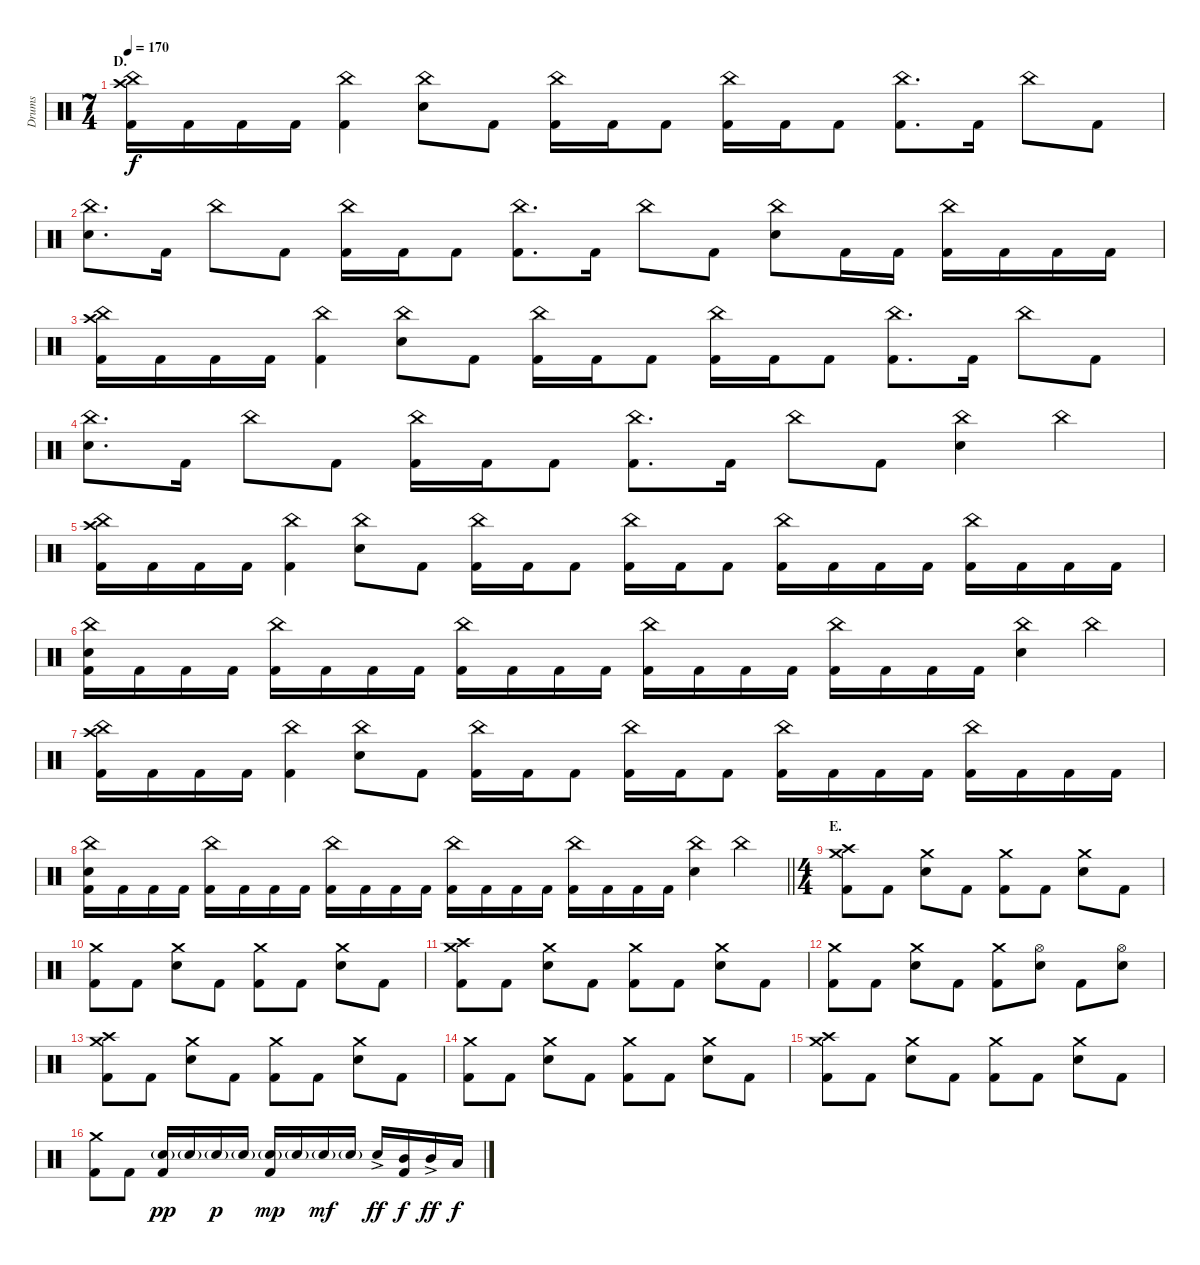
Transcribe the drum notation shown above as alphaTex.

\track ("Drums" "Drums") {instrument percussion}
\staff {score}
\articulation defaults
\ts (7 4)
\section ("" "D.")
\tempo 170
\clef neutral
\ks c
("China (hit)" "Crash high (hit)" "Kick (hit) 2").16{dy f} "Kick (hit) 2".16 "Kick (hit) 2".16 "Kick (hit) 2".16 ("China (hit)" "Kick (hit) 2").4 ("China (hit)" "Electric Snare (hit)").8 "Kick (hit) 2".8 ("China (hit)" "Kick (hit) 2").16 "Kick (hit) 2".16 "Kick (hit) 2".8 ("China (hit)" "Kick (hit) 2").16 "Kick (hit) 2".16 "Kick (hit) 2".8 ("China (hit)" "Kick (hit) 2").8{d} "Kick (hit) 2".16 "China (hit)".8 "Kick (hit) 2".8 |
("China (hit)" "Electric Snare (hit)").8{d} "Kick (hit) 2".16 "China (hit)".8 "Kick (hit) 2".8 ("China (hit)" "Kick (hit) 2").16 "Kick (hit) 2".16 "Kick (hit) 2".8 ("China (hit)" "Kick (hit) 2").8{d} "Kick (hit) 2".16 "China (hit)".8 "Kick (hit) 2".8 ("China (hit)" "Electric Snare (hit)").8 "Kick (hit) 2".16 "Kick (hit) 2".16 ("China (hit)" "Kick (hit) 2").16 "Kick (hit) 2".16 "Kick (hit) 2".16 "Kick (hit) 2".16 |
("China (hit)" "Crash high (hit)" "Kick (hit) 2").16 "Kick (hit) 2".16 "Kick (hit) 2".16 "Kick (hit) 2".16 ("China (hit)" "Kick (hit) 2").4 ("China (hit)" "Electric Snare (hit)").8 "Kick (hit) 2".8 ("China (hit)" "Kick (hit) 2").16 "Kick (hit) 2".16 "Kick (hit) 2".8 ("China (hit)" "Kick (hit) 2").16 "Kick (hit) 2".16 "Kick (hit) 2".8 ("China (hit)" "Kick (hit) 2").8{d} "Kick (hit) 2".16 "China (hit)".8 "Kick (hit) 2".8 |
("China (hit)" "Electric Snare (hit)").8{d} "Kick (hit) 2".16 "China (hit)".8 "Kick (hit) 2".8 ("China (hit)" "Kick (hit) 2").16 "Kick (hit) 2".16 "Kick (hit) 2".8 ("China (hit)" "Kick (hit) 2").8{d} "Kick (hit) 2".16 "China (hit)".8 "Kick (hit) 2".8 ("China (hit)" "Electric Snare (hit)").4 "China (hit)".4 |
("China (hit)" "Crash high (hit)" "Kick (hit) 2").16 "Kick (hit) 2".16 "Kick (hit) 2".16 "Kick (hit) 2".16 ("China (hit)" "Kick (hit) 2").4 ("China (hit)" "Electric Snare (hit)").8 "Kick (hit) 2".8 ("China (hit)" "Kick (hit) 2").16 "Kick (hit) 2".16 "Kick (hit) 2".8 ("China (hit)" "Kick (hit) 2").16 "Kick (hit) 2".16 "Kick (hit) 2".8 ("China (hit)" "Kick (hit) 2").16 "Kick (hit) 2".16 "Kick (hit) 2".16 "Kick (hit) 2".16 ("China (hit)" "Kick (hit) 2").16 "Kick (hit) 2".16 "Kick (hit) 2".16 "Kick (hit) 2".16 |
("China (hit)" "Electric Snare (hit)" "Kick (hit) 2").16 "Kick (hit) 2".16 "Kick (hit) 2".16 "Kick (hit) 2".16 ("China (hit)" "Kick (hit) 2").16 "Kick (hit) 2".16 "Kick (hit) 2".16 "Kick (hit) 2".16 ("China (hit)" "Kick (hit) 2").16 "Kick (hit) 2".16 "Kick (hit) 2".16 "Kick (hit) 2".16 ("China (hit)" "Kick (hit) 2").16 "Kick (hit) 2".16 "Kick (hit) 2".16 "Kick (hit) 2".16 ("China (hit)" "Kick (hit) 2").16 "Kick (hit) 2".16 "Kick (hit) 2".16 "Kick (hit) 2".16 ("China (hit)" "Electric Snare (hit)").4 "China (hit)".4 |
("China (hit)" "Crash high (hit)" "Kick (hit) 2").16 "Kick (hit) 2".16 "Kick (hit) 2".16 "Kick (hit) 2".16 ("China (hit)" "Kick (hit) 2").4 ("China (hit)" "Electric Snare (hit)").8 "Kick (hit) 2".8 ("China (hit)" "Kick (hit) 2").16 "Kick (hit) 2".16 "Kick (hit) 2".8 ("China (hit)" "Kick (hit) 2").16 "Kick (hit) 2".16 "Kick (hit) 2".8 ("China (hit)" "Kick (hit) 2").16 "Kick (hit) 2".16 "Kick (hit) 2".16 "Kick (hit) 2".16 ("China (hit)" "Kick (hit) 2").16 "Kick (hit) 2".16 "Kick (hit) 2".16 "Kick (hit) 2".16 |
\barLineRight lightlight
("China (hit)" "Electric Snare (hit)" "Kick (hit) 2").16 "Kick (hit) 2".16 "Kick (hit) 2".16 "Kick (hit) 2".16 ("China (hit)" "Kick (hit) 2").16 "Kick (hit) 2".16 "Kick (hit) 2".16 "Kick (hit) 2".16 ("China (hit)" "Kick (hit) 2").16 "Kick (hit) 2".16 "Kick (hit) 2".16 "Kick (hit) 2".16 ("China (hit)" "Kick (hit) 2").16 "Kick (hit) 2".16 "Kick (hit) 2".16 "Kick (hit) 2".16 ("China (hit)" "Kick (hit) 2").16 "Kick (hit) 2".16 "Kick (hit) 2".16 "Kick (hit) 2".16 ("China (hit)" "Electric Snare (hit)").4 "China (hit)".4 |
\ts (4 4)
\section ("" "E.")
("Crash medium (hit)" "Crash high (hit)" "Kick (hit) 2").8 "Kick (hit) 2".8 ("Crash medium (hit)" "Electric Snare (hit)").8 "Kick (hit) 2".8 ("Crash medium (hit)" "Kick (hit) 2").8 "Kick (hit) 2".8 ("Crash medium (hit)" "Electric Snare (hit)").8 "Kick (hit) 2".8 |
("Crash medium (hit)" "Kick (hit) 2").8 "Kick (hit) 2".8 ("Crash medium (hit)" "Electric Snare (hit)").8 "Kick (hit) 2".8 ("Crash medium (hit)" "Kick (hit) 2").8 "Kick (hit) 2".8 ("Crash medium (hit)" "Electric Snare (hit)").8 "Kick (hit) 2".8 |
("Crash medium (hit)" "Crash high (hit)" "Kick (hit) 2").8 "Kick (hit) 2".8 ("Crash medium (hit)" "Electric Snare (hit)").8 "Kick (hit) 2".8 ("Crash medium (hit)" "Kick (hit) 2").8 "Kick (hit) 2".8 ("Crash medium (hit)" "Electric Snare (hit)").8 "Kick (hit) 2".8 |
("Crash medium (hit)" "Kick (hit) 2").8 "Kick (hit) 2".8 ("Crash medium (hit)" "Electric Snare (hit)").8 "Kick (hit) 2".8 ("Crash medium (hit)" "Kick (hit) 2").8 ("Hi-Hat (open)" "Electric Snare (hit)").8 "Kick (hit) 2".8 ("Hi-Hat (open)" "Electric Snare (hit)").8 |
("Crash medium (hit)" "Crash high (hit)" "Kick (hit) 2").8 "Kick (hit) 2".8 ("Crash medium (hit)" "Electric Snare (hit)").8 "Kick (hit) 2".8 ("Crash medium (hit)" "Kick (hit) 2").8 "Kick (hit) 2".8 ("Crash medium (hit)" "Electric Snare (hit)").8 "Kick (hit) 2".8 |
("Crash medium (hit)" "Kick (hit) 2").8 "Kick (hit) 2".8 ("Crash medium (hit)" "Electric Snare (hit)").8 "Kick (hit) 2".8 ("Crash medium (hit)" "Kick (hit) 2").8 "Kick (hit) 2".8 ("Crash medium (hit)" "Electric Snare (hit)").8 "Kick (hit) 2".8 |
("Crash medium (hit)" "Crash high (hit)" "Kick (hit) 2").8 "Kick (hit) 2".8 ("Crash medium (hit)" "Electric Snare (hit)").8 "Kick (hit) 2".8 ("Crash medium (hit)" "Kick (hit) 2").8 "Kick (hit) 2".8 ("Crash medium (hit)" "Electric Snare (hit)").8 "Kick (hit) 2".8 |
("Crash medium (hit)" "Kick (hit) 2").8 "Kick (hit) 2".8 ("Electric Snare (hit)"{g} "Kick (hit) 2").16{dy pp} "Electric Snare (hit)"{g}.16 "Electric Snare (hit)"{g}.16{dy p} "Electric Snare (hit)"{g}.16 ("Electric Snare (hit)"{g} "Kick (hit) 2").16{dy mp} "Electric Snare (hit)"{g}.16 "Electric Snare (hit)"{g}.16{dy mf} "Electric Snare (hit)"{g}.16 "Electric Snare (hit)"{ac}.16{dy ff} ("Mid Tom (hit)" "Kick (hit) 2").16{dy f} "Mid Tom (hit)"{ac}.16{dy ff} "Low Tom (hit)".16{dy f}
